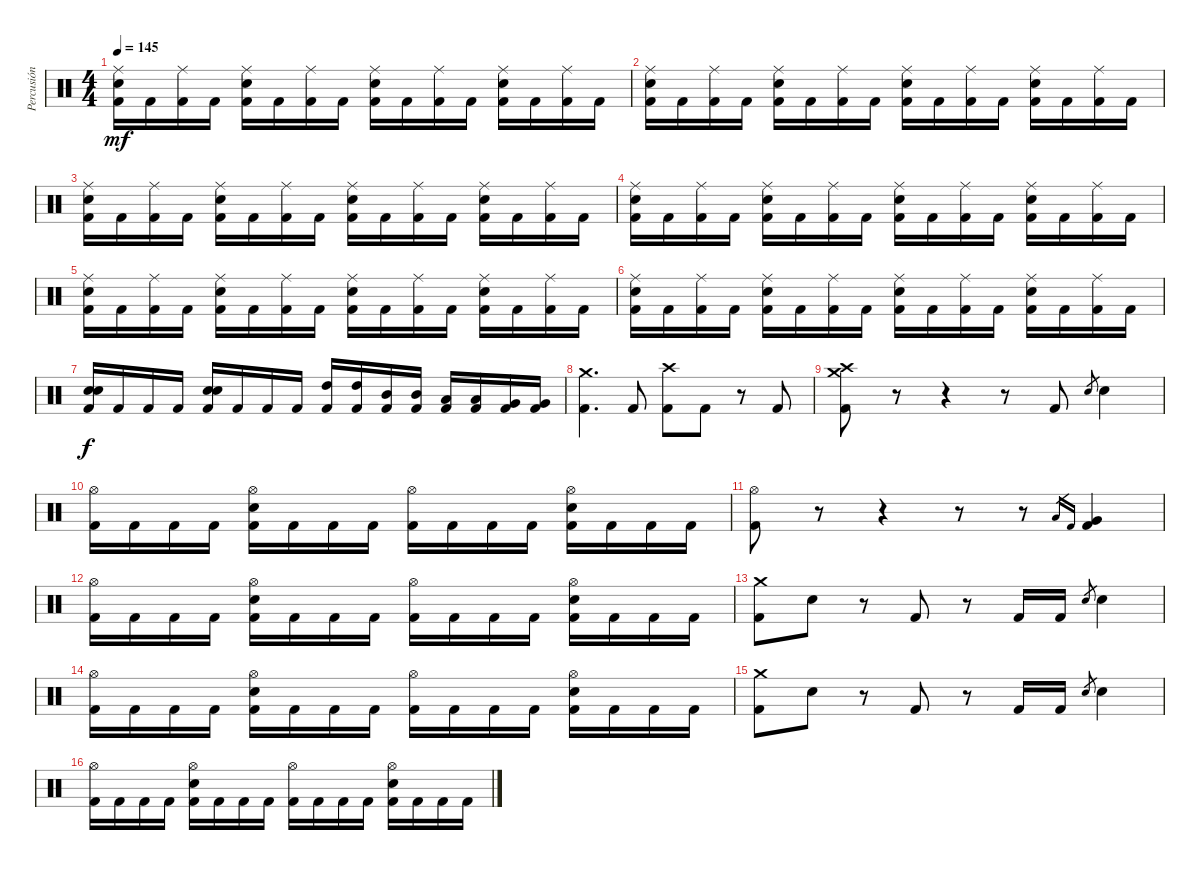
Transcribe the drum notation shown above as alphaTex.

\track ("Percusión" "Percusión") {instrument percussion}
\staff {score}
\articulation defaults
\ts (4 4)
\tempo 145
\clef neutral
\ks c
("Ride (middle)" "Snare (hit) 2" "Kick (hit) 2").16{dy mf} "Kick (hit) 2".16 ("Ride (middle)" "Kick (hit) 2").16 "Kick (hit) 2".16 ("Ride (middle)" "Snare (hit) 2" "Kick (hit) 2").16 "Kick (hit) 2".16 ("Ride (middle)" "Kick (hit) 2").16 "Kick (hit) 2".16 ("Ride (middle)" "Snare (hit) 2" "Kick (hit) 2").16 "Kick (hit) 2".16 ("Ride (middle)" "Kick (hit) 2").16 "Kick (hit) 2".16 ("Ride (middle)" "Snare (hit) 2" "Kick (hit) 2").16 "Kick (hit) 2".16 ("Ride (middle)" "Kick (hit) 2").16 "Kick (hit) 2".16 |
("Ride (middle)" "Snare (hit) 2" "Kick (hit) 2").16 "Kick (hit) 2".16 ("Ride (middle)" "Kick (hit) 2").16 "Kick (hit) 2".16 ("Ride (middle)" "Snare (hit) 2" "Kick (hit) 2").16 "Kick (hit) 2".16 ("Ride (middle)" "Kick (hit) 2").16 "Kick (hit) 2".16 ("Ride (middle)" "Snare (hit) 2" "Kick (hit) 2").16 "Kick (hit) 2".16 ("Ride (middle)" "Kick (hit) 2").16 "Kick (hit) 2".16 ("Ride (middle)" "Snare (hit) 2" "Kick (hit) 2").16 "Kick (hit) 2".16 ("Ride (middle)" "Kick (hit) 2").16 "Kick (hit) 2".16 |
("Ride (middle)" "Snare (hit) 2" "Kick (hit) 2").16 "Kick (hit) 2".16 ("Ride (middle)" "Kick (hit) 2").16 "Kick (hit) 2".16 ("Ride (middle)" "Snare (hit) 2" "Kick (hit) 2").16 "Kick (hit) 2".16 ("Ride (middle)" "Kick (hit) 2").16 "Kick (hit) 2".16 ("Ride (middle)" "Snare (hit) 2" "Kick (hit) 2").16 "Kick (hit) 2".16 ("Ride (middle)" "Kick (hit) 2").16 "Kick (hit) 2".16 ("Ride (middle)" "Snare (hit) 2" "Kick (hit) 2").16 "Kick (hit) 2".16 ("Ride (middle)" "Kick (hit) 2").16 "Kick (hit) 2".16 |
("Ride (middle)" "Snare (hit) 2" "Kick (hit) 2").16 "Kick (hit) 2".16 ("Ride (middle)" "Kick (hit) 2").16 "Kick (hit) 2".16 ("Ride (middle)" "Snare (hit) 2" "Kick (hit) 2").16 "Kick (hit) 2".16 ("Ride (middle)" "Kick (hit) 2").16 "Kick (hit) 2".16 ("Ride (middle)" "Snare (hit) 2" "Kick (hit) 2").16 "Kick (hit) 2".16 ("Ride (middle)" "Kick (hit) 2").16 "Kick (hit) 2".16 ("Ride (middle)" "Snare (hit) 2" "Kick (hit) 2").16 "Kick (hit) 2".16 ("Ride (middle)" "Kick (hit) 2").16 "Kick (hit) 2".16 |
("Ride (middle)" "Snare (hit) 2" "Kick (hit) 2").16 "Kick (hit) 2".16 ("Ride (middle)" "Kick (hit) 2").16 "Kick (hit) 2".16 ("Ride (middle)" "Snare (hit) 2" "Kick (hit) 2").16 "Kick (hit) 2".16 ("Ride (middle)" "Kick (hit) 2").16 "Kick (hit) 2".16 ("Ride (middle)" "Snare (hit) 2" "Kick (hit) 2").16 "Kick (hit) 2".16 ("Ride (middle)" "Kick (hit) 2").16 "Kick (hit) 2".16 ("Ride (middle)" "Snare (hit) 2" "Kick (hit) 2").16 "Kick (hit) 2".16 ("Ride (middle)" "Kick (hit) 2").16 "Kick (hit) 2".16 |
("Ride (middle)" "Snare (hit) 2" "Kick (hit) 2").16 "Kick (hit) 2".16 ("Ride (middle)" "Kick (hit) 2").16 "Kick (hit) 2".16 ("Ride (middle)" "Snare (hit) 2" "Kick (hit) 2").16 "Kick (hit) 2".16 ("Ride (middle)" "Kick (hit) 2").16 "Kick (hit) 2".16 ("Ride (middle)" "Snare (hit) 2" "Kick (hit) 2").16 "Kick (hit) 2".16 ("Ride (middle)" "Kick (hit) 2").16 "Kick (hit) 2".16 ("Ride (middle)" "Snare (hit) 2" "Kick (hit) 2").16 "Kick (hit) 2".16 ("Ride (middle)" "Kick (hit) 2").16 "Kick (hit) 2".16 |
("Snare (hit) 2" "Snare (hit) 2" "Kick (hit) 2").16{dy f} "Kick (hit) 2".16 "Kick (hit) 2".16 "Kick (hit) 2".16 ("Snare (hit) 2" "Snare (hit) 2" "Kick (hit) 2").16 "Kick (hit) 2".16 "Kick (hit) 2".16 "Kick (hit) 2".16 ("High Tom (hit)" "Kick (hit) 2").16 ("High Tom (hit)" "Kick (hit) 2").16 ("Mid Tom (hit)" "Kick (hit) 2").16 ("Mid Tom (hit)" "Kick (hit) 2").16 ("Low Tom (hit)" "Kick (hit) 2").16 ("Low Tom (hit)" "Kick (hit) 2").16 ("Very Low Tom (hit)" "Kick (hit) 2").16 ("Very Low Tom (hit)" "Kick (hit) 2").16 |
("Crash medium (hit)" "Kick (hit) 2").4{d} "Kick (hit) 2".8 ("Crash high (hit)" "Kick (hit) 2").8 "Kick (hit) 2".8 r.8 "Kick (hit) 2".8 |
("Crash medium (hit)" "Crash high (hit)" "Kick (hit) 2").8 r.8 r.4 r.8 "Kick (hit) 2".8 "Snare (hit) 2".8{gr} "Snare (hit) 2".4 |
("Hi-Hat (open)" "Kick (hit) 2").16 "Kick (hit) 2".16 "Kick (hit) 2".16 "Kick (hit) 2".16 ("Hi-Hat (open)" "Snare (hit) 2" "Kick (hit) 2").16 "Kick (hit) 2".16 "Kick (hit) 2".16 "Kick (hit) 2".16 ("Hi-Hat (open)" "Kick (hit) 2").16 "Kick (hit) 2".16 "Kick (hit) 2".16 "Kick (hit) 2".16 ("Hi-Hat (open)" "Snare (hit) 2" "Kick (hit) 2").16 "Kick (hit) 2".16 "Kick (hit) 2".16 "Kick (hit) 2".16 |
("Hi-Hat (open)" "Kick (hit) 2").8 r.8 r.4 r.8 r.8 "Low Tom (hit)".16{gr} "Kick (hit) 2".16{gr} ("Very Low Tom (hit)" "Kick (hit) 2").4 |
("Hi-Hat (open)" "Kick (hit) 2").16 "Kick (hit) 2".16 "Kick (hit) 2".16 "Kick (hit) 2".16 ("Hi-Hat (open)" "Snare (hit) 2" "Kick (hit) 2").16 "Kick (hit) 2".16 "Kick (hit) 2".16 "Kick (hit) 2".16 ("Hi-Hat (open)" "Kick (hit) 2").16 "Kick (hit) 2".16 "Kick (hit) 2".16 "Kick (hit) 2".16 ("Hi-Hat (open)" "Snare (hit) 2" "Kick (hit) 2").16 "Kick (hit) 2".16 "Kick (hit) 2".16 "Kick (hit) 2".16 |
("Crash medium (hit)" "Kick (hit) 2").8 "Snare (hit) 2".8 r.8 "Kick (hit) 2".8 r.8 "Kick (hit) 2".16 "Kick (hit) 2".16 "Snare (hit) 2".8{gr} "Snare (hit) 2".4 |
("Hi-Hat (open)" "Kick (hit) 2").16 "Kick (hit) 2".16 "Kick (hit) 2".16 "Kick (hit) 2".16 ("Hi-Hat (open)" "Snare (hit) 2" "Kick (hit) 2").16 "Kick (hit) 2".16 "Kick (hit) 2".16 "Kick (hit) 2".16 ("Hi-Hat (open)" "Kick (hit) 2").16 "Kick (hit) 2".16 "Kick (hit) 2".16 "Kick (hit) 2".16 ("Hi-Hat (open)" "Snare (hit) 2" "Kick (hit) 2").16 "Kick (hit) 2".16 "Kick (hit) 2".16 "Kick (hit) 2".16 |
("Crash medium (hit)" "Kick (hit) 2").8 "Snare (hit) 2".8 r.8 "Kick (hit) 2".8 r.8 "Kick (hit) 2".16 "Kick (hit) 2".16 "Snare (hit) 2".8{gr} "Snare (hit) 2".4 |
("Hi-Hat (open)" "Kick (hit) 2").16 "Kick (hit) 2".16 "Kick (hit) 2".16 "Kick (hit) 2".16 ("Hi-Hat (open)" "Snare (hit) 2" "Kick (hit) 2").16 "Kick (hit) 2".16 "Kick (hit) 2".16 "Kick (hit) 2".16 ("Hi-Hat (open)" "Kick (hit) 2").16 "Kick (hit) 2".16 "Kick (hit) 2".16 "Kick (hit) 2".16 ("Hi-Hat (open)" "Snare (hit) 2" "Kick (hit) 2").16 "Kick (hit) 2".16 "Kick (hit) 2".16 "Kick (hit) 2".16
